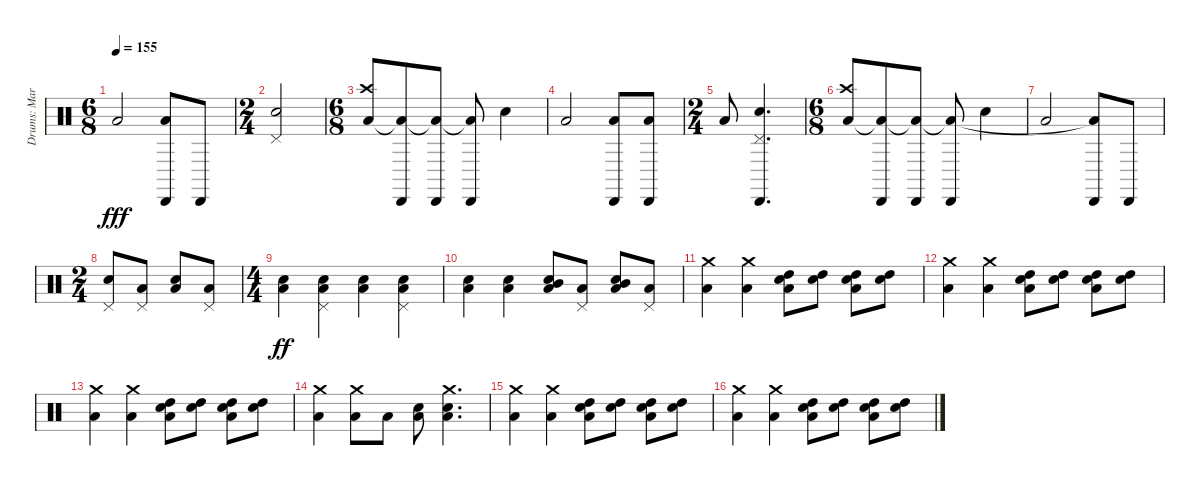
\track ("Drums: Mark Cross" "Drums: Mar") {instrument percussion}
\staff {score}
\articulation defaults
\ts (6 8)
\tempo 155
\clef neutral
\ks c "Low Tom (hit)".2{dy fff}
("Cabasa (hit)" "Low Tom (hit)"{t}).8 "Cabasa (hit)".8 |
\ts (2 4)
("Pedal Hi-Hat (hit)" "Snare (hit) 2").2 |
\ts (6 8)
("Crash high (hit)" "Low Tom (hit)").8 ("Cabasa (hit)" "Low Tom (hit)"{t}).8 ("Cabasa (hit)" "Low Tom (hit)"{t}).8 ("Cabasa (hit)" "Low Tom (hit)"{t}).8 "Snare (hit) 2".4 |
"Low Tom (hit)".2 ("Cabasa (hit)" "Low Tom (hit)").8 ("Cabasa (hit)" "Low Tom (hit)").8 |
\ts (2 4)
"Low Tom (hit)".8 ("Pedal Hi-Hat (hit)" "Snare (hit) 2" "Cabasa (hit)").4{d} |
\ts (6 8)
("Crash high (hit)" "Low Tom (hit)").8 ("Cabasa (hit)" "Low Tom (hit)"{t}).8 ("Cabasa (hit)" "Low Tom (hit)"{t}).8 ("Cabasa (hit)" "Low Tom (hit)"{t}).8 "Snare (hit) 2".4 |
"Low Tom (hit)".2 ("Cabasa (hit)" "Low Tom (hit)"{t}).8 "Cabasa (hit)".8 |
\ts (2 4)
("Pedal Hi-Hat (hit)" "Snare (hit) 2").8 ("Pedal Hi-Hat (hit)" "Low Tom (hit)").8 ("Snare (hit) 2" "Low Tom (hit)").8 ("Pedal Hi-Hat (hit)" "Low Tom (hit)").8 |
\ts (4 4)
("Snare (hit) 2" "Low Tom (hit)").4{dy ff} ("Snare (hit) 2" "Pedal Hi-Hat (hit)" "Low Tom (hit)").4 ("Snare (hit) 2" "Low Tom (hit)").4 ("Snare (hit) 2" "Pedal Hi-Hat (hit)" "Low Tom (hit)").4 |
("Snare (hit) 2" "Low Tom (hit)").4 ("Snare (hit) 2" "Low Tom (hit)").4 ("Snare (hit) 2" "Mid Tom (hit)" "Low Tom (hit)").8 ("Pedal Hi-Hat (hit)" "Low Tom (hit)").8 ("Snare (hit) 2" "Mid Tom (hit)" "Low Tom (hit)").8 ("Pedal Hi-Hat (hit)" "Low Tom (hit)").8 |
("Crash medium (hit)" "Low Tom (hit)").4 ("Crash medium (hit)" "Low Tom (hit)").4 ("Snare (hit) 2" "High Tom (hit)" "Low Tom (hit)").8 ("Snare (hit) 2" "High Tom (hit)").8 ("Snare (hit) 2" "High Tom (hit)" "Low Tom (hit)").8 ("Snare (hit) 2" "High Tom (hit)").8 |
("Crash medium (hit)" "Low Tom (hit)").4 ("Crash medium (hit)" "Low Tom (hit)").4 ("Snare (hit) 2" "High Tom (hit)" "Low Tom (hit)").8 ("Snare (hit) 2" "High Tom (hit)").8 ("Snare (hit) 2" "High Tom (hit)" "Low Tom (hit)").8 ("Snare (hit) 2" "High Tom (hit)").8 |
("Crash medium (hit)" "Low Tom (hit)").4 ("Crash medium (hit)" "Low Tom (hit)").4 ("Snare (hit) 2" "High Tom (hit)" "Low Tom (hit)").8 ("Snare (hit) 2" "High Tom (hit)").8 ("Snare (hit) 2" "High Tom (hit)" "Low Tom (hit)").8 ("Snare (hit) 2" "High Tom (hit)").8 |
("Crash medium (hit)" "Low Tom (hit)").4 ("Crash medium (hit)" "Low Tom (hit)").8 "Low Tom (hit)".8 ("Snare (hit) 2" "Low Tom (hit)").8 ("Crash medium (hit)" "Snare (hit) 2" "Low Tom (hit)").4{d} |
("Crash medium (hit)" "Low Tom (hit)").4 ("Crash medium (hit)" "Low Tom (hit)").4 ("Snare (hit) 2" "High Tom (hit)" "Low Tom (hit)").8 ("Snare (hit) 2" "High Tom (hit)").8 ("Snare (hit) 2" "High Tom (hit)" "Low Tom (hit)").8 ("Snare (hit) 2" "High Tom (hit)").8 |
("Crash medium (hit)" "Low Tom (hit)").4 ("Crash medium (hit)" "Low Tom (hit)").4 ("Snare (hit) 2" "High Tom (hit)" "Low Tom (hit)").8 ("Snare (hit) 2" "High Tom (hit)").8 ("Snare (hit) 2" "High Tom (hit)" "Low Tom (hit)").8 ("Snare (hit) 2" "High Tom (hit)").8
